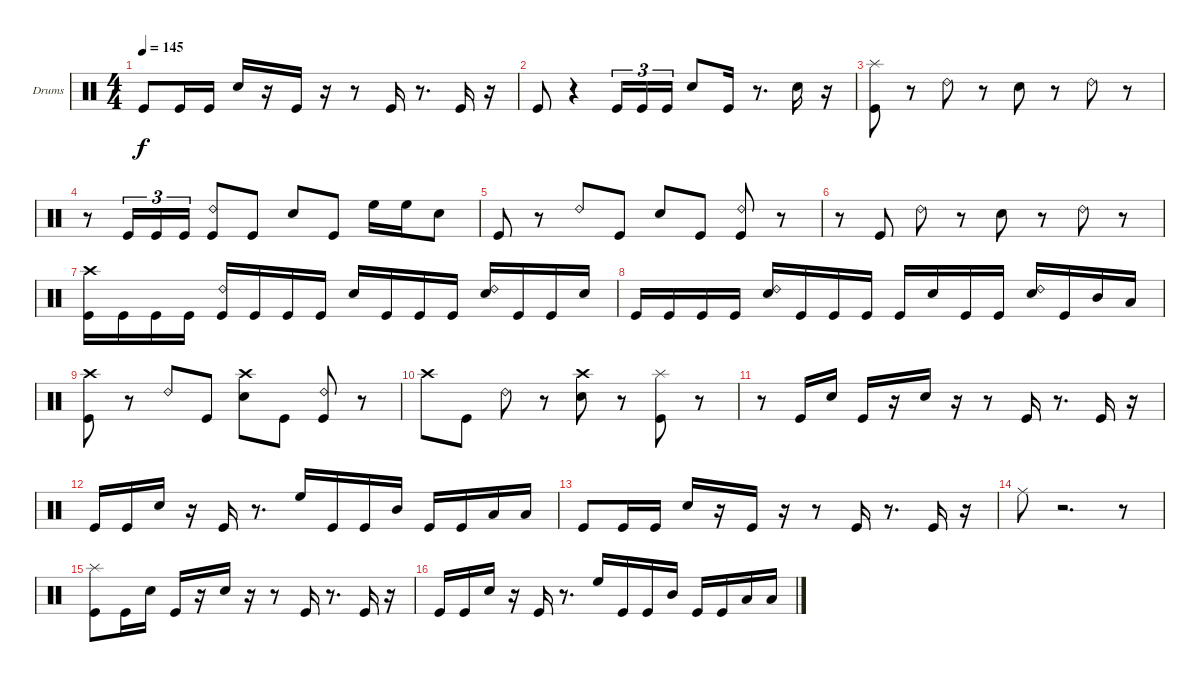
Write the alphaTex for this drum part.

\bracketExtendMode groupsimilarinstruments
\firstSystemTrackNameOrientation horizontal
\otherSystemsTrackNameOrientation horizontal
\track ("Drumkit" "Drums") {instrument percussion}
\staff {score}
\articulation defaults
\ts (4 4)
\tempo 145
\clef neutral
\ks c "Kick (hit)".8{dy f} "Kick (hit)".16 "Kick (hit)".16 "Snare (hit) 2".16
r.16 "Kick (hit)".16 r.16 r.8 "Kick (hit)".16 r.8{d} "Kick (hit)".16 r.16 |
"Kick (hit)".8 r.4 "Kick (hit)".16{tu (3 2)} "Kick (hit)".16{tu (3 2)} "Kick (hit)".16{tu (3 2)} "Snare (hit) 2".8 "Kick (hit)".16 r.8{d} "Snare (hit) 2".16 r.16 |
("Kick (hit)" "Splash (hit)").8 r.8 "Ride (bell) 2".8 r.8 "Snare (hit) 2".8 r.8 "Ride (bell) 2".8 r.8 |
r.8 "Kick (hit)".16{tu (3 2)} "Kick (hit)".16{tu (3 2)} "Kick (hit)".16{tu (3 2)} ("Kick (hit)" "Ride (bell) 2").8 "Kick (hit)".8 "Snare (hit) 2".8 "Kick (hit)".8 "High Floor Tom (hit)".16 "High Floor Tom (hit)".16 "Snare (hit) 2".8 |
"Kick (hit)".8 r.8 "Ride (bell) 2".8 "Kick (hit)".8 "Snare (hit) 2".8 "Kick (hit)".8 ("Kick (hit)" "Ride (bell) 2").8 r.8 |
r.8 "Kick (hit)".8 "Ride (bell) 2".8 r.8 "Snare (hit) 2".8 r.8 "Ride (bell) 2".8 r.8 |
("Crash high (hit)" "Kick (hit)").16 "Kick (hit)".16 "Kick (hit)".16 "Kick (hit)".16 ("Ride (bell) 2" "Kick (hit)").16 "Kick (hit)".16 "Kick (hit)".16 "Kick (hit)".16 "Snare (hit) 2".16 "Kick (hit)".16 "Kick (hit)".16 "Kick (hit)".16 ("Ride (bell) 2" "Snare (hit) 2").16 "Kick (hit)".16 "Kick (hit)".16 "Snare (hit) 2".16 |
"Kick (hit)".16 "Kick (hit)".16 "Kick (hit)".16 "Kick (hit)".16 ("Ride (bell) 2" "Snare (hit) 2").16 "Kick (hit)".16 "Kick (hit)".16 "Kick (hit)".16 "Kick (hit)".16 "Snare (hit) 2".16 "Kick (hit)".16 "Kick (hit)".16 ("Ride (bell) 2" "Snare (hit) 2").16 "Kick (hit)".16 "Mid Tom (hit)".16 "Low Tom (hit)".16 |
("Crash high (hit)" "Kick (hit)").8 r.8 "Ride (bell) 2".8 "Kick (hit)".8 ("Crash high (hit)" "Snare (hit) 2").8 "Kick (hit)".8 ("Kick (hit)" "Ride (bell) 2").8 r.8 |
"Crash high (hit)".8 "Kick (hit)".8 "Ride (bell) 2".8 r.8 ("Crash high (hit)" "Snare (hit) 2").8 r.8 ("Splash (hit)" "Kick (hit)").8 r.8 |
r.8 "Kick (hit)".16 "Snare (hit) 2".16 "Kick (hit)".16 r.16 "Snare (hit) 2".16 r.16 r.8 "Kick (hit)".16 r.8{d} "Kick (hit)".16 r.16 |
"Kick (hit)".16 "Kick (hit)".16 "Snare (hit) 2".16 r.16 "Kick (hit)".16 r.8{d} "High Floor Tom (hit)".16 "Kick (hit)".16 "Kick (hit)".16 "Mid Tom (hit)".16 "Kick (hit)".16 "Kick (hit)".16 "Low Tom (hit)".16 "Low Tom (hit)".16 |
"Kick (hit)".8 "Kick (hit)".16 "Kick (hit)".16 "Snare (hit) 2".16 r.16 "Kick (hit)".16 r.16 r.8 "Kick (hit)".16 r.8{d} "Kick (hit)".16 r.16 |
"Ride (middle)".8 r.2{d} r.8 |
("Splash (hit)" "Kick (hit)").8 "Kick (hit)".16 "Snare (hit) 2".16 "Kick (hit)".16 r.16 "Snare (hit) 2".16 r.16 r.8 "Kick (hit)".16 r.8{d} "Kick (hit)".16 r.16 |
"Kick (hit)".16 "Kick (hit)".16 "Snare (hit) 2".16 r.16 "Kick (hit)".16 r.8{d} "High Floor Tom (hit)".16 "Kick (hit)".16 "Kick (hit)".16 "Mid Tom (hit)".16 "Kick (hit)".16 "Kick (hit)".16 "Low Tom (hit)".16 "Low Tom (hit)".16
